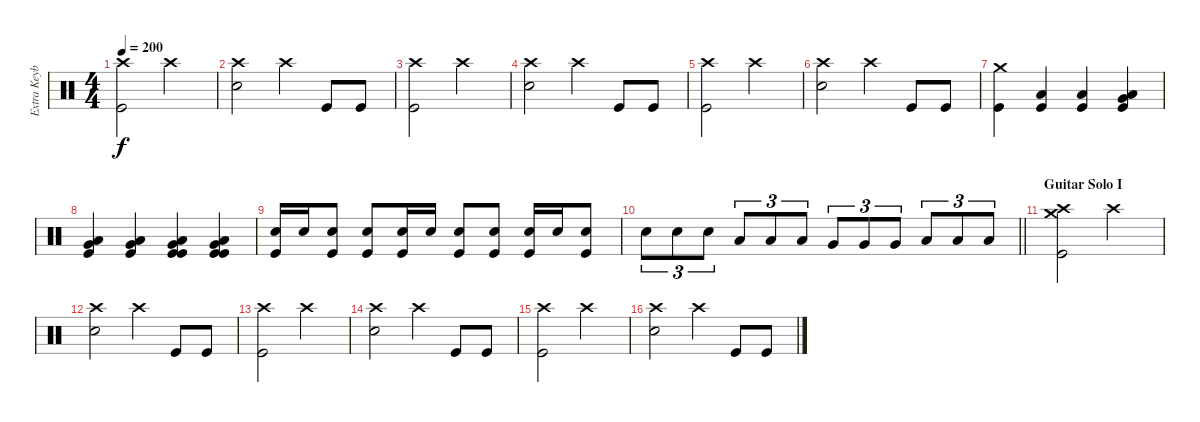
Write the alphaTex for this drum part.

\track ("Extra Keyboard" "Extra Keyb") {instrument percussion}
\staff {score}
\articulation defaults
\ts (4 4)
\tempo 200
\clef neutral
\ks c
("Crash high (hit)" "Kick (hit)").2{dy f} "Crash high (hit)".2 |
("Crash high (hit)" "Electric Snare (hit)").2 "Crash high (hit)".4 "Kick (hit)".8 "Kick (hit)".8 |
("Crash high (hit)" "Kick (hit)").2 "Crash high (hit)".2 |
("Crash high (hit)" "Electric Snare (hit)").2 "Crash high (hit)".4 "Kick (hit)".8 "Kick (hit)".8 |
("Crash high (hit)" "Kick (hit)").2 "Crash high (hit)".2 |
("Crash high (hit)" "Electric Snare (hit)").2 "Crash high (hit)".4 "Kick (hit)".8 "Kick (hit)".8 |
("Crash medium (hit)" "Kick (hit)").4 ("Low Floor Tom (hit)" "Kick (hit)").4 ("Low Floor Tom (hit)" "Kick (hit)").4 ("Very Low Tom (hit)" "Low Floor Tom (hit)" "Kick (hit)").4 |
("Very Low Tom (hit)" "Low Floor Tom (hit)" "Kick (hit)").4 ("Very Low Tom (hit)" "Low Floor Tom (hit)" "Kick (hit)").4 ("Very Low Tom (hit)" "Low Floor Tom (hit)" "Kick (hit)" "Kick (hit)").4 ("Very Low Tom (hit)" "Low Floor Tom (hit)" "Kick (hit)" "Kick (hit)").4 |
("Electric Snare (hit)" "Kick (hit)").16 "Electric Snare (hit)".16 ("Electric Snare (hit)" "Kick (hit)").8 ("Electric Snare (hit)" "Kick (hit)").8 ("Electric Snare (hit)" "Kick (hit)").16 "Electric Snare (hit)".16 ("Electric Snare (hit)" "Kick (hit)").8 ("Electric Snare (hit)" "Kick (hit)").8 ("Electric Snare (hit)" "Kick (hit)").16 "Electric Snare (hit)".16 ("Electric Snare (hit)" "Kick (hit)").8 |
\barLineRight lightlight "Electric Snare (hit)".8{tu (3 2)} "Electric Snare (hit)".8{tu (3 2)} "Electric Snare (hit)".8{tu (3 2)} "Low Tom (hit)".8{tu (3 2)} "Low Tom (hit)".8{tu (3 2)} "Low Tom (hit)".8{tu (3 2)} "Very Low Tom (hit)".8{tu (3 2)} "Very Low Tom (hit)".8{tu (3 2)} "Very Low Tom (hit)".8{tu (3 2)} "Low Floor Tom (hit)".8{tu (3 2)} "Low Floor Tom (hit)".8{tu (3 2)} "Low Floor Tom (hit)".8{tu (3 2)}
|
\section ("" "Guitar Solo I")
("Crash high (hit)" "Crash medium (hit)" "Kick (hit)").2 "Crash high (hit)".2 |
("Crash high (hit)" "Electric Snare (hit)").2 "Crash high (hit)".4 "Kick (hit)".8 "Kick (hit)".8 |
("Crash high (hit)" "Kick (hit)").2 "Crash high (hit)".2 |
("Crash high (hit)" "Electric Snare (hit)").2 "Crash high (hit)".4 "Kick (hit)".8 "Kick (hit)".8 |
("Crash high (hit)" "Kick (hit)").2 "Crash high (hit)".2 |
("Crash high (hit)" "Electric Snare (hit)").2 "Crash high (hit)".4 "Kick (hit)".8 "Kick (hit)".8
